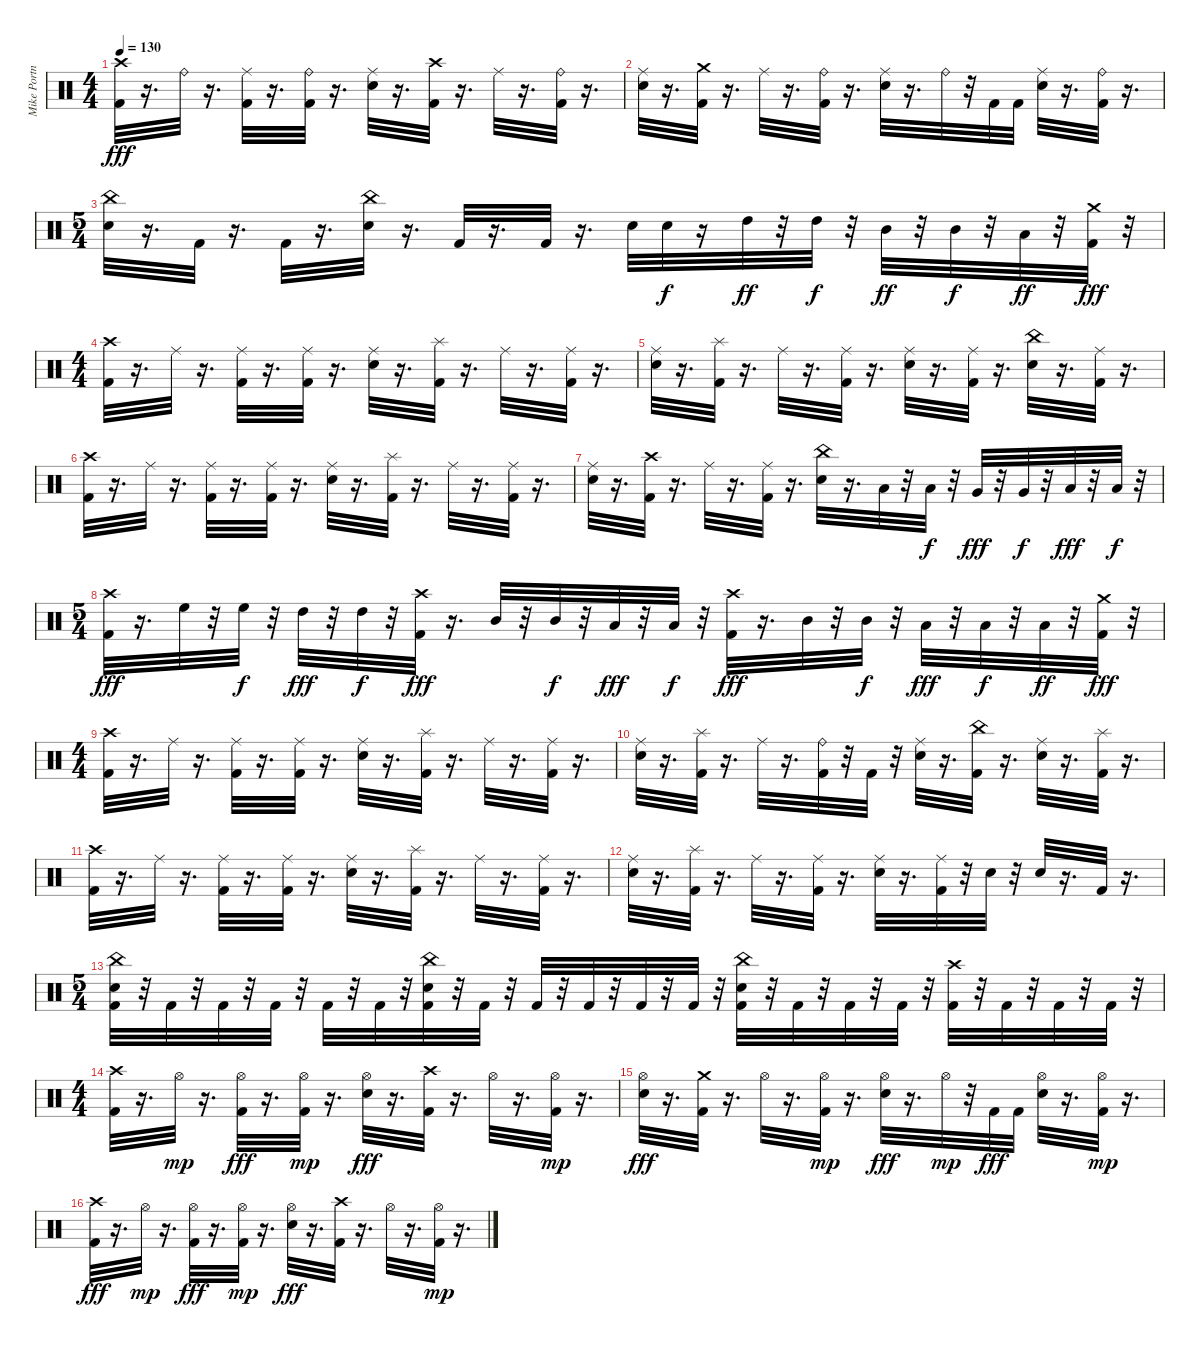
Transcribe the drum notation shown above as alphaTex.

\track ("Mike Portnoy" "Mike Portn") {instrument percussion}
\staff {score}
\articulation defaults
\ts (4 4)
\tempo 130
\clef neutral
\ks c
("Crash high (hit)" "Kick (hit) 2").32{dy fff} r.16{d} "Ride (bell)".32 r.16{d} ("Kick (hit) 2" "Ride (middle)").32 r.16{d} ("Kick (hit) 2" "Ride (bell)").32 r.16{d} ("Snare (hit) 2" "Ride (middle)").32 r.16{d} ("Crash high (hit)" "Kick (hit) 2").32 r.16{d} "Ride (middle)".32 r.16{d} ("Kick (hit) 2" "Ride (bell)").32 r.16{d} |
("Snare (hit) 2" "Ride (middle)").32 r.16{d} ("Kick (hit) 2" "Crash medium (hit)").32 r.16{d} "Ride (middle)".32 r.16{d} ("Kick (hit) 2" "Ride (bell)").32 r.16{d} ("Snare (hit) 2" "Ride (middle)").32 r.16{d} "Ride (bell)".32 r.32 "Kick (hit) 2".32 "Kick (hit) 2".32 ("Snare (hit) 2" "Ride (middle)").32 r.16{d} ("Kick (hit) 2" "Ride (bell)").32 r.16{d} |
\ts (5 4)
("Snare (hit) 2" "China (hit)").32 r.16{d} "Kick (hit) 2".32 r.16{d} "Kick (hit) 2".32 r.16{d} ("Snare (hit) 2" "China (hit)").32 r.16{d} "Kick (hit) 2".32 r.16{d} "Kick (hit) 2".32 r.16{d} "Snare (hit) 2".32 "Snare (hit) 2".32{dy f} r.16 "High Tom (hit)".32{dy ff} r.32 "High Tom (hit)".32{dy f} r.32 "Mid Tom (hit)".32{dy ff} r.32 "Mid Tom (hit)".32{dy f} r.32 "Low Tom (hit)".32{dy ff} r.32 ("Kick (hit) 2" "Crash medium (hit)").32{dy fff} r.32 |
\ts (4 4)
("Crash high (hit)" "Kick (hit) 2").32 r.16{d} "Ride (middle)".32 r.16{d} ("Kick (hit) 2" "Ride (middle)").32 r.16{d} ("Kick (hit) 2" "Ride (middle)").32 r.16{d} ("Snare (hit) 2" "Ride (middle)").32 r.16{d} ("Kick (hit) 2" "Splash (hit)").32 r.16{d} "Ride (middle)".32 r.16{d} ("Kick (hit) 2" "Ride (middle)").32 r.16{d} |
("Snare (hit) 2" "Ride (middle)").32 r.16{d} ("Kick (hit) 2" "Splash (hit)").32 r.16{d} "Ride (middle)".32 r.16{d} ("Kick (hit) 2" "Ride (middle)").32 r.16{d} ("Snare (hit) 2" "Ride (middle)").32 r.16{d} ("Kick (hit) 2" "Ride (middle)").32 r.16{d} ("Snare (hit) 2" "China (hit)").32 r.16{d} ("Kick (hit) 2" "Ride (middle)").32 r.16{d} |
("Crash high (hit)" "Kick (hit) 2").32 r.16{d} "Ride (middle)".32 r.16{d} ("Kick (hit) 2" "Ride (middle)").32 r.16{d} ("Kick (hit) 2" "Ride (middle)").32 r.16{d} ("Snare (hit) 2" "Ride (middle)").32 r.16{d} ("Kick (hit) 2" "Splash (hit)").32 r.16{d} "Ride (middle)".32 r.16{d} ("Kick (hit) 2" "Ride (middle)").32 r.16{d} |
("Snare (hit) 2" "Ride (middle)").32 r.16{d} ("Kick (hit) 2" "Crash high (hit)").32 r.16{d} "Ride (middle)".32 r.16{d} ("Kick (hit) 2" "Ride (middle)").32 r.16{d} ("Snare (hit) 2" "China (hit)").32 r.16{d} "Low Tom (hit)".32 r.32 "Low Tom (hit)".32{dy f} r.32 "Very Low Tom (hit)".32{dy fff} r.32 "Very Low Tom (hit)".32{dy f} r.32 "Low Floor Tom (hit)".32{dy fff} r.32 "Low Floor Tom (hit)".32{dy f} r.32 |
\ts (5 4)
("Kick (hit) 2" "Crash high (hit)").32{dy fff} r.16{d} "High Floor Tom (hit)".32 r.32 "High Floor Tom (hit)".32{dy f} r.32 "High Tom (hit)".32{dy fff} r.32 "High Tom (hit)".32{dy f} r.32 ("Kick (hit) 2" "Crash high (hit)").32{dy fff} r.16{d} "Mid Tom (hit)".32 r.32 "Mid Tom (hit)".32{dy f} r.32 "Low Tom (hit)".32{dy fff} r.32 "Low Tom (hit)".32{dy f} r.32 ("Kick (hit) 2" "Crash high (hit)").32{dy fff} r.16{d} "Mid Tom (hit)".32 r.32 "Mid Tom (hit)".32{dy f} r.32 "Low Tom (hit)".32{dy fff} r.32 "Low Tom (hit)".32{dy f} r.32 "Low Tom (hit)".32{dy ff} r.32 ("Kick (hit) 2" "Crash medium (hit)").32{dy fff} r.32 |
\ts (4 4)
("Crash high (hit)" "Kick (hit) 2").32 r.16{d} "Ride (middle)".32 r.16{d} ("Kick (hit) 2" "Ride (middle)").32 r.16{d} ("Kick (hit) 2" "Ride (middle)").32 r.16{d} ("Snare (hit) 2" "Ride (middle)").32 r.16{d} ("Kick (hit) 2" "Splash (hit)").32 r.16{d} "Ride (middle)".32 r.16{d} ("Kick (hit) 2" "Ride (middle)").32 r.16{d} |
("Snare (hit) 2" "Ride (middle)").32 r.16{d} ("Kick (hit) 2" "Splash (hit)").32 r.16{d} "Ride (middle)".32 r.16{d} ("Kick (hit) 2" "Ride (bell)").32 r.32 "Kick (hit) 2".32 r.32 ("Snare (hit) 2" "Ride (middle)").32 r.16{d} ("Kick (hit) 2" "China (hit)").32 r.16{d} ("Snare (hit) 2" "Ride (middle)").32 r.16{d} ("Kick (hit) 2" "Splash (hit)").32 r.16{d} |
("Crash high (hit)" "Kick (hit) 2").32 r.16{d} "Ride (middle)".32 r.16{d} ("Kick (hit) 2" "Ride (middle)").32 r.16{d} ("Kick (hit) 2" "Ride (middle)").32 r.16{d} ("Snare (hit) 2" "Ride (middle)").32 r.16{d} ("Kick (hit) 2" "Splash (hit)").32 r.16{d} "Ride (middle)".32 r.16{d} ("Kick (hit) 2" "Ride (middle)").32 r.16{d} |
("Snare (hit) 2" "Ride (middle)").32 r.16{d} ("Kick (hit) 2" "Splash (hit)").32 r.16{d} "Ride (middle)".32 r.16{d} ("Kick (hit) 2" "Ride (middle)").32 r.16{d} ("Snare (hit) 2" "Ride (middle)").32 r.16{d} ("Kick (hit) 2" "Ride (middle)").32 r.32 "Snare (hit) 2".32 r.32 "Snare (hit) 2".32 r.16{d} "Kick (hit) 2".32 r.16{d} |
\ts (5 4)
("Kick (hit) 2" "Snare (hit) 2" "China (hit)").32 r.32 "Kick (hit) 2".32 r.32 "Kick (hit) 2".32 r.32 "Kick (hit) 2".32 r.32 "Kick (hit) 2".32 r.32 "Kick (hit) 2".32 r.32 ("Kick (hit) 2" "Snare (hit) 2" "China (hit)").32 r.32 "Kick (hit) 2".32 r.32 "Kick (hit) 2".32 r.32 "Kick (hit) 2".32 r.32 "Kick (hit) 2".32 r.32 "Kick (hit) 2".32 r.32 ("Kick (hit) 2" "Snare (hit) 2" "China (hit)").32 r.32 "Kick (hit) 2".32 r.32 "Kick (hit) 2".32 r.32 "Kick (hit) 2".32 r.32 ("Kick (hit) 2" "Crash high (hit)").32 r.32 "Kick (hit) 2".32 r.32 "Kick (hit) 2".32 r.32 "Kick (hit) 2".32 r.32 |
\ts (4 4)
("Crash high (hit)" "Kick (hit) 2").32 r.16{d} "Hi-Hat (open)".32{dy mp} r.16{d} ("Kick (hit) 2" "Hi-Hat (open)").32{dy fff} r.16{d} ("Kick (hit) 2" "Hi-Hat (open)").32{dy mp} r.16{d} ("Snare (hit) 2" "Hi-Hat (open)").32{dy fff} r.16{d} ("Crash high (hit)" "Kick (hit) 2").32 r.16{d} "Hi-Hat (open)".32 r.16{d} ("Kick (hit) 2" "Hi-Hat (open)").32{dy mp} r.16{d} |
("Snare (hit) 2" "Hi-Hat (open)").32{dy fff} r.16{d} ("Kick (hit) 2" "Crash medium (hit)").32 r.16{d} "Hi-Hat (open)".32 r.16{d} ("Kick (hit) 2" "Hi-Hat (open)").32{dy mp} r.16{d} ("Snare (hit) 2" "Hi-Hat (open)").32{dy fff} r.16{d} "Hi-Hat (open)".32{dy mp} r.32 "Kick (hit) 2".32{dy fff} "Kick (hit) 2".32 ("Snare (hit) 2" "Hi-Hat (open)").32 r.16{d} ("Kick (hit) 2" "Hi-Hat (open)").32{dy mp} r.16{d} |
("Crash high (hit)" "Kick (hit) 2").32{dy fff} r.16{d} "Hi-Hat (open)".32{dy mp} r.16{d} ("Kick (hit) 2" "Hi-Hat (open)").32{dy fff} r.16{d} ("Kick (hit) 2" "Hi-Hat (open)").32{dy mp} r.16{d} ("Snare (hit) 2" "Hi-Hat (open)").32{dy fff} r.16{d} ("Crash high (hit)" "Kick (hit) 2").32 r.16{d} "Hi-Hat (open)".32 r.16{d} ("Kick (hit) 2" "Hi-Hat (open)").32{dy mp} r.16{d}
